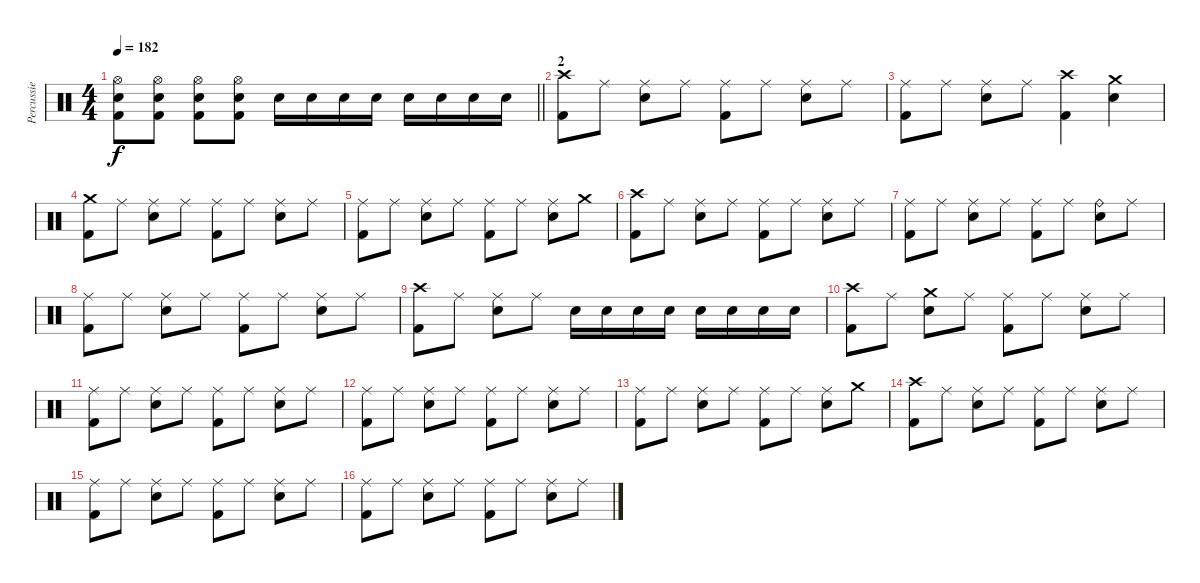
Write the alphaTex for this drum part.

\track ("Percussie" "Percussie") {instrument percussion}
\staff {score}
\articulation defaults
\ts (4 4)
\tempo 182
\clef neutral
\barLineRight lightlight
\ks c
("Hi-Hat (open)" "Snare (hit) 2" "Kick (hit) 2").8{dy f} ("Hi-Hat (open)" "Snare (hit) 2" "Kick (hit) 2").8 ("Hi-Hat (open)" "Snare (hit) 2" "Kick (hit) 2").8 ("Hi-Hat (open)" "Snare (hit) 2" "Kick (hit) 2").8 "Snare (hit) 2".16 "Snare (hit) 2".16 "Snare (hit) 2".16 "Snare (hit) 2".16 "Snare (hit) 2".16 "Snare (hit) 2".16 "Snare (hit) 2".16 "Snare (hit) 2".16 |
\section ("" "2")
("Crash high (hit)" "Kick (hit) 2").8 "Ride (middle)".8 ("Ride (middle)" "Snare (hit) 2").8 "Ride (middle)".8 ("Ride (middle)" "Kick (hit) 2").8 "Ride (middle)".8 ("Ride (middle)" "Snare (hit) 2").8 "Ride (middle)".8 |
("Ride (middle)" "Kick (hit) 2").8 "Ride (middle)".8 ("Ride (middle)" "Snare (hit) 2").8 "Ride (middle)".8 ("Crash high (hit)" "Kick (hit) 2").4 ("Crash medium (hit)" "Snare (hit) 2").4 |
("Crash medium (hit)" "Kick (hit) 2").8 "Ride (middle)".8 ("Ride (middle)" "Snare (hit) 2").8 "Ride (middle)".8 ("Ride (middle)" "Kick (hit) 2").8 "Ride (middle)".8 ("Ride (middle)" "Snare (hit) 2").8 "Ride (middle)".8 |
("Ride (middle)" "Kick (hit) 2").8 "Ride (middle)".8 ("Ride (middle)" "Snare (hit) 2").8 "Ride (middle)".8 ("Ride (middle)" "Kick (hit) 2").8 "Ride (middle)".8 ("Ride (middle)" "Snare (hit) 2").8 "Crash medium (hit)".8 |
("Crash high (hit)" "Kick (hit) 2").8 "Ride (middle)".8 ("Ride (middle)" "Snare (hit) 2").8 "Ride (middle)".8 ("Ride (middle)" "Kick (hit) 2").8 "Ride (middle)".8 ("Ride (middle)" "Snare (hit) 2").8 "Ride (middle)".8 |
("Ride (middle)" "Kick (hit) 2").8 "Ride (middle)".8 ("Ride (middle)" "Snare (hit) 2").8 "Ride (middle)".8 ("Ride (middle)" "Kick (hit) 2").8 "Ride (middle)".8 ("Ride (bell)" "Snare (hit) 2").8 "Ride (middle)".8 |
("Ride (middle)" "Kick (hit) 2").8 "Ride (middle)".8 ("Ride (middle)" "Snare (hit) 2").8 "Ride (middle)".8 ("Ride (middle)" "Kick (hit) 2").8 "Ride (middle)".8 ("Ride (middle)" "Snare (hit) 2").8 "Ride (middle)".8 |
("Crash high (hit)" "Kick (hit) 2").8 "Ride (middle)".8 ("Ride (middle)" "Snare (hit) 2").8 "Ride (middle)".8 "Snare (hit) 2".16 "Snare (hit) 2".16 "Snare (hit) 2".16 "Snare (hit) 2".16 "Snare (hit) 2".16 "Snare (hit) 2".16 "Snare (hit) 2".16 "Snare (hit) 2".16 |
("Crash high (hit)" "Kick (hit) 2").8 "Ride (middle)".8 ("Crash medium (hit)" "Snare (hit) 2").8 "Ride (middle)".8 ("Ride (middle)" "Kick (hit) 2").8 "Ride (middle)".8 ("Ride (middle)" "Snare (hit) 2").8 "Ride (middle)".8 |
("Ride (middle)" "Kick (hit) 2").8 "Ride (middle)".8 ("Ride (middle)" "Snare (hit) 2").8 "Ride (middle)".8 ("Ride (middle)" "Kick (hit) 2").8 "Ride (middle)".8 ("Ride (middle)" "Snare (hit) 2").8 "Ride (middle)".8 |
("Ride (middle)" "Kick (hit) 2").8 "Ride (middle)".8 ("Ride (middle)" "Snare (hit) 2").8 "Ride (middle)".8 ("Ride (middle)" "Kick (hit) 2").8 "Ride (middle)".8 ("Ride (middle)" "Snare (hit) 2").8 "Ride (middle)".8 |
("Ride (middle)" "Kick (hit) 2").8 "Ride (middle)".8 ("Ride (middle)" "Snare (hit) 2").8 "Ride (middle)".8 ("Ride (middle)" "Kick (hit) 2").8 "Ride (middle)".8 ("Ride (middle)" "Snare (hit) 2").8 "Crash medium (hit)".8 |
("Crash high (hit)" "Kick (hit) 2").8 "Ride (middle)".8 ("Ride (middle)" "Snare (hit) 2").8 "Ride (middle)".8 ("Ride (middle)" "Kick (hit) 2").8 "Ride (middle)".8 ("Ride (middle)" "Snare (hit) 2").8 "Ride (middle)".8 |
("Ride (middle)" "Kick (hit) 2").8 "Ride (middle)".8 ("Ride (middle)" "Snare (hit) 2").8 "Ride (middle)".8 ("Ride (middle)" "Kick (hit) 2").8 "Ride (middle)".8 ("Ride (middle)" "Snare (hit) 2").8 "Ride (middle)".8 |
("Ride (middle)" "Kick (hit) 2").8 "Ride (middle)".8 ("Ride (middle)" "Snare (hit) 2").8 "Ride (middle)".8 ("Ride (middle)" "Kick (hit) 2").8 "Ride (middle)".8 ("Ride (middle)" "Snare (hit) 2").8 "Ride (middle)".8
